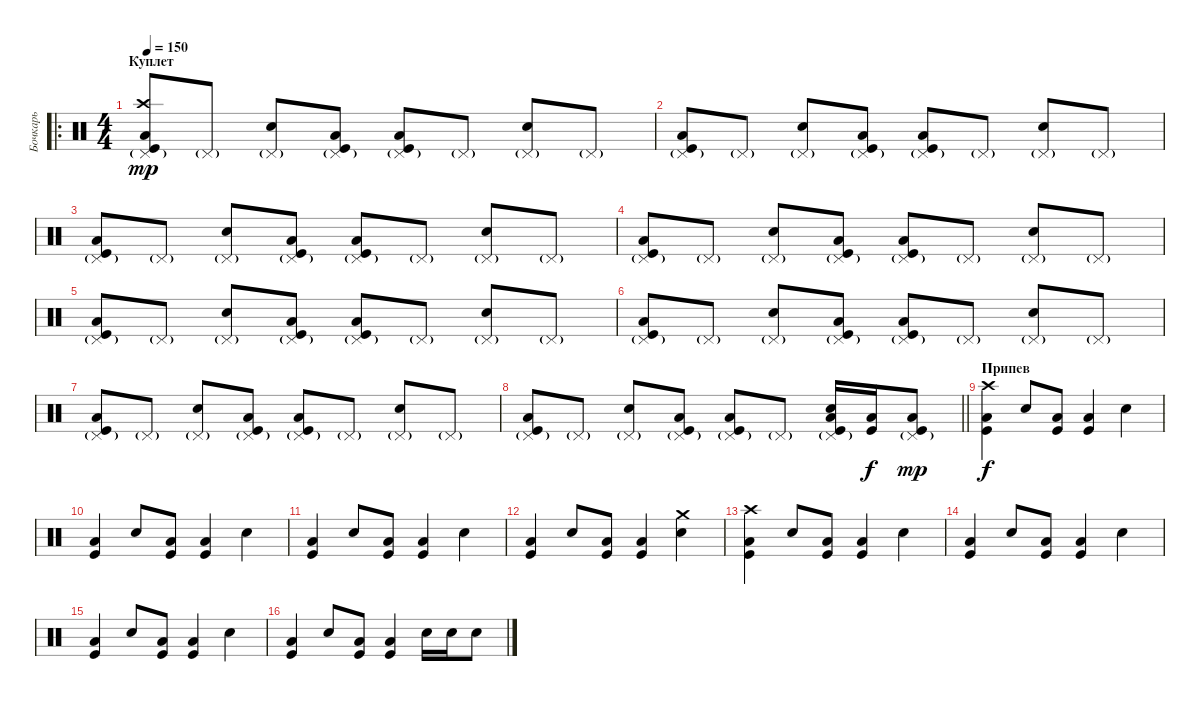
\track ("Бочкарь" "Бочкарь") {instrument percussion}
\staff {score}
\articulation defaults
\ro
\ts (4 4)
\section ("" "Куплет")
\tempo 150
\clef neutral
\ks c
("Pedal Hi-Hat (hit)"{g} "Crash high (hit)" "Low Tom (hit)" "Kick (hit)").8{dy mp} "Pedal Hi-Hat (hit)"{g}.8 ("Pedal Hi-Hat (hit)"{g} "Electric Snare (hit)").8 ("Pedal Hi-Hat (hit)"{g} "Low Tom (hit)" "Kick (hit)").8 ("Pedal Hi-Hat (hit)"{g} "Low Tom (hit)" "Kick (hit)").8 "Pedal Hi-Hat (hit)"{g}.8 ("Pedal Hi-Hat (hit)"{g} "Electric Snare (hit)").8 "Pedal Hi-Hat (hit)"{g}.8 |
("Pedal Hi-Hat (hit)"{g} "Low Tom (hit)" "Kick (hit)").8 "Pedal Hi-Hat (hit)"{g}.8 ("Pedal Hi-Hat (hit)"{g} "Electric Snare (hit)").8 ("Pedal Hi-Hat (hit)"{g} "Low Tom (hit)" "Kick (hit)").8 ("Pedal Hi-Hat (hit)"{g} "Low Tom (hit)" "Kick (hit)").8 "Pedal Hi-Hat (hit)"{g}.8 ("Pedal Hi-Hat (hit)"{g} "Electric Snare (hit)").8 "Pedal Hi-Hat (hit)"{g}.8 |
("Pedal Hi-Hat (hit)"{g} "Low Tom (hit)" "Kick (hit)").8 "Pedal Hi-Hat (hit)"{g}.8 ("Pedal Hi-Hat (hit)"{g} "Electric Snare (hit)").8 ("Pedal Hi-Hat (hit)"{g} "Low Tom (hit)" "Kick (hit)").8 ("Pedal Hi-Hat (hit)"{g} "Low Tom (hit)" "Kick (hit)").8 "Pedal Hi-Hat (hit)"{g}.8 ("Pedal Hi-Hat (hit)"{g} "Electric Snare (hit)").8 "Pedal Hi-Hat (hit)"{g}.8 |
("Pedal Hi-Hat (hit)"{g} "Low Tom (hit)" "Kick (hit)").8 "Pedal Hi-Hat (hit)"{g}.8 ("Pedal Hi-Hat (hit)"{g} "Electric Snare (hit)").8 ("Pedal Hi-Hat (hit)"{g} "Low Tom (hit)" "Kick (hit)").8 ("Pedal Hi-Hat (hit)"{g} "Low Tom (hit)" "Kick (hit)").8 "Pedal Hi-Hat (hit)"{g}.8 ("Pedal Hi-Hat (hit)"{g} "Electric Snare (hit)").8 "Pedal Hi-Hat (hit)"{g}.8 |
("Pedal Hi-Hat (hit)"{g} "Low Tom (hit)" "Kick (hit)").8 "Pedal Hi-Hat (hit)"{g}.8 ("Pedal Hi-Hat (hit)"{g} "Electric Snare (hit)").8 ("Pedal Hi-Hat (hit)"{g} "Low Tom (hit)" "Kick (hit)").8 ("Pedal Hi-Hat (hit)"{g} "Low Tom (hit)" "Kick (hit)").8 "Pedal Hi-Hat (hit)"{g}.8 ("Pedal Hi-Hat (hit)"{g} "Electric Snare (hit)").8 "Pedal Hi-Hat (hit)"{g}.8 |
("Pedal Hi-Hat (hit)"{g} "Low Tom (hit)" "Kick (hit)").8 "Pedal Hi-Hat (hit)"{g}.8 ("Pedal Hi-Hat (hit)"{g} "Electric Snare (hit)").8 ("Pedal Hi-Hat (hit)"{g} "Low Tom (hit)" "Kick (hit)").8 ("Pedal Hi-Hat (hit)"{g} "Low Tom (hit)" "Kick (hit)").8 "Pedal Hi-Hat (hit)"{g}.8 ("Pedal Hi-Hat (hit)"{g} "Electric Snare (hit)").8 "Pedal Hi-Hat (hit)"{g}.8 |
("Pedal Hi-Hat (hit)"{g} "Low Tom (hit)" "Kick (hit)").8 "Pedal Hi-Hat (hit)"{g}.8 ("Pedal Hi-Hat (hit)"{g} "Electric Snare (hit)").8 ("Pedal Hi-Hat (hit)"{g} "Low Tom (hit)" "Kick (hit)").8 ("Pedal Hi-Hat (hit)"{g} "Low Tom (hit)" "Kick (hit)").8 "Pedal Hi-Hat (hit)"{g}.8 ("Pedal Hi-Hat (hit)"{g} "Electric Snare (hit)").8 "Pedal Hi-Hat (hit)"{g}.8 |
\barLineRight lightlight
("Pedal Hi-Hat (hit)"{g} "Low Tom (hit)" "Kick (hit)").8 "Pedal Hi-Hat (hit)"{g}.8 ("Pedal Hi-Hat (hit)"{g} "Electric Snare (hit)").8 ("Pedal Hi-Hat (hit)"{g} "Low Tom (hit)" "Kick (hit)").8 ("Pedal Hi-Hat (hit)"{g} "Low Tom (hit)" "Kick (hit)").8 "Pedal Hi-Hat (hit)"{g}.8 ("Pedal Hi-Hat (hit)"{g} "Electric Snare (hit)" "Low Tom (hit)" "Kick (hit)").16 ("Low Tom (hit)" "Kick (hit)").16{dy f} ("Pedal Hi-Hat (hit)"{g} "Low Tom (hit)" "Kick (hit)").8{dy mp} |
\section ("" "Припев")
("Crash high (hit)" "Low Tom (hit)" "Kick (hit)").4{dy f} "Electric Snare (hit)".8 ("Low Tom (hit)" "Kick (hit)").8 ("Low Tom (hit)" "Kick (hit)").4 "Electric Snare (hit)".4 |
("Low Tom (hit)" "Kick (hit)").4 "Electric Snare (hit)".8 ("Low Tom (hit)" "Kick (hit)").8 ("Low Tom (hit)" "Kick (hit)").4 "Electric Snare (hit)".4 |
("Low Tom (hit)" "Kick (hit)").4 "Electric Snare (hit)".8 ("Low Tom (hit)" "Kick (hit)").8 ("Low Tom (hit)" "Kick (hit)").4 "Electric Snare (hit)".4 |
("Low Tom (hit)" "Kick (hit)").4 "Electric Snare (hit)".8 ("Low Tom (hit)" "Kick (hit)").8 ("Low Tom (hit)" "Kick (hit)").4 ("Crash medium (hit)" "Electric Snare (hit)").4 |
("Crash high (hit)" "Low Tom (hit)" "Kick (hit)").4 "Electric Snare (hit)".8 ("Low Tom (hit)" "Kick (hit)").8 ("Low Tom (hit)" "Kick (hit)").4 "Electric Snare (hit)".4 |
("Low Tom (hit)" "Kick (hit)").4 "Electric Snare (hit)".8 ("Low Tom (hit)" "Kick (hit)").8 ("Low Tom (hit)" "Kick (hit)").4 "Electric Snare (hit)".4 |
("Low Tom (hit)" "Kick (hit)").4 "Electric Snare (hit)".8 ("Low Tom (hit)" "Kick (hit)").8 ("Low Tom (hit)" "Kick (hit)").4 "Electric Snare (hit)".4 |
("Low Tom (hit)" "Kick (hit)").4 "Electric Snare (hit)".8 ("Low Tom (hit)" "Kick (hit)").8 ("Low Tom (hit)" "Kick (hit)").4 "Snare (hit) 2".16 "Snare (hit) 2".16 "Electric Snare (hit)".8
